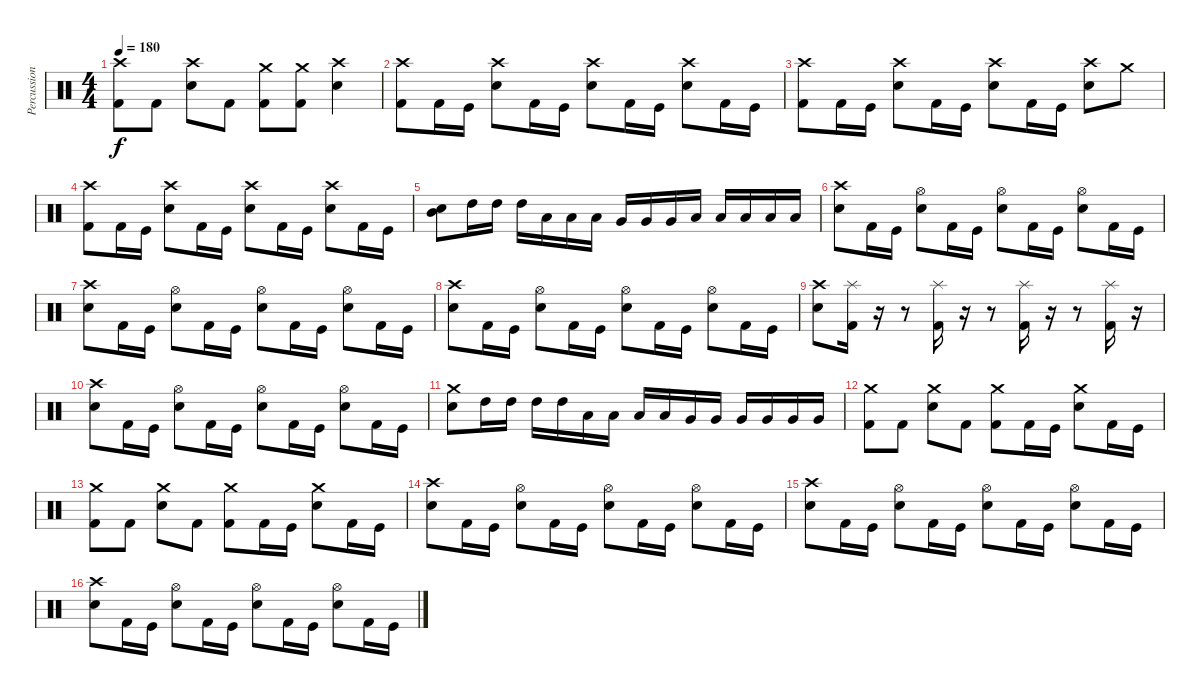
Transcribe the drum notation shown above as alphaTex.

\track ("Percussion" "Percussion") {instrument percussion}
\staff {score}
\articulation defaults
\ts (4 4)
\tempo 180
\clef neutral
\ks c
("Kick (hit) 2" "Crash high (hit)").8{dy f} "Kick (hit) 2".8 ("Snare (hit) 2" "Crash high (hit)").8 "Kick (hit) 2".8 ("Kick (hit) 2" "Crash medium (hit)").8 ("Kick (hit) 2" "Crash medium (hit)").8 ("Snare (hit) 2" "Crash high (hit)").4 |
("Kick (hit) 2" "Crash high (hit)").8 "Kick (hit) 2".16 "Kick (hit)".16 ("Snare (hit) 2" "Crash high (hit)").8 "Kick (hit) 2".16 "Kick (hit)".16 ("Snare (hit) 2" "Crash high (hit)").8 "Kick (hit) 2".16 "Kick (hit)".16 ("Snare (hit) 2" "Crash high (hit)").8 "Kick (hit) 2".16 "Kick (hit)".16 |
("Kick (hit) 2" "Crash high (hit)").8 "Kick (hit) 2".16 "Kick (hit)".16 ("Snare (hit) 2" "Crash high (hit)").8 "Kick (hit) 2".16 "Kick (hit)".16 ("Snare (hit) 2" "Crash high (hit)").8 "Kick (hit) 2".16 "Kick (hit)".16 ("Snare (hit) 2" "Crash high (hit)").8 "Crash medium (hit)".8 |
("Kick (hit) 2" "Crash high (hit)").8 "Kick (hit) 2".16 "Kick (hit)".16 ("Snare (hit) 2" "Crash high (hit)").8 "Kick (hit) 2".16 "Kick (hit)".16 ("Snare (hit) 2" "Crash high (hit)").8 "Kick (hit) 2".16 "Kick (hit)".16 ("Snare (hit) 2" "Crash high (hit)").8 "Kick (hit) 2".16 "Kick (hit)".16 |
("Snare (hit) 2" "Mid Tom (hit)").8 "High Tom (hit)".16 "High Tom (hit)".16 "High Tom (hit)".16 "Low Tom (hit)".16 "Low Tom (hit)".16 "Low Tom (hit)".16 "Very Low Tom (hit)".16 "Very Low Tom (hit)".16 "Very Low Tom (hit)".16 "Low Floor Tom (hit)".16 "Low Floor Tom (hit)".16 "Low Floor Tom (hit)".16 "Low Floor Tom (hit)".16 "Low Floor Tom (hit)".16 |
("Snare (hit) 2" "Crash high (hit)").8 "Kick (hit) 2".16 "Kick (hit)".16 ("Snare (hit) 2" "Hi-Hat (open)").8 "Kick (hit) 2".16 "Kick (hit)".16 ("Snare (hit) 2" "Hi-Hat (open)").8 "Kick (hit) 2".16 "Kick (hit)".16 ("Snare (hit) 2" "Hi-Hat (open)").8 "Kick (hit) 2".16 "Kick (hit)".16 |
("Snare (hit) 2" "Crash high (hit)").8 "Kick (hit) 2".16 "Kick (hit)".16 ("Snare (hit) 2" "Hi-Hat (open)").8 "Kick (hit) 2".16 "Kick (hit)".16 ("Snare (hit) 2" "Hi-Hat (open)").8 "Kick (hit) 2".16 "Kick (hit)".16 ("Snare (hit) 2" "Hi-Hat (open)").8 "Kick (hit) 2".16 "Kick (hit)".16 |
("Snare (hit) 2" "Crash high (hit)").8 "Kick (hit) 2".16 "Kick (hit)".16 ("Snare (hit) 2" "Hi-Hat (open)").8 "Kick (hit) 2".16 "Kick (hit)".16 ("Snare (hit) 2" "Hi-Hat (open)").8 "Kick (hit) 2".16 "Kick (hit)".16 ("Snare (hit) 2" "Hi-Hat (open)").8 "Kick (hit) 2".16 "Kick (hit)".16 |
("Snare (hit) 2" "Crash high (hit)").8 ("Kick (hit) 2" "Splash (hit)").16 r.16 r.8 ("Kick (hit) 2" "Splash (hit)").16 r.16 r.8 ("Kick (hit) 2" "Splash (hit)").16 r.16 r.8 ("Kick (hit) 2" "Splash (hit)").16 r.16 |
("Snare (hit) 2" "Crash high (hit)").8 "Kick (hit) 2".16 "Kick (hit)".16 ("Snare (hit) 2" "Hi-Hat (open)").8 "Kick (hit) 2".16 "Kick (hit)".16 ("Snare (hit) 2" "Hi-Hat (open)").8 "Kick (hit) 2".16 "Kick (hit)".16 ("Snare (hit) 2" "Hi-Hat (open)").8 "Kick (hit) 2".16 "Kick (hit)".16 |
("Snare (hit) 2" "Crash medium (hit)").8 "High Tom (hit)".16 "High Tom (hit)".16 "High Tom (hit)".16 "High Tom (hit)".16 "Low Tom (hit)".16 "Low Tom (hit)".16 "Low Tom (hit)".16 "Low Tom (hit)".16 "Very Low Tom (hit)".16 "Very Low Tom (hit)".16 "Very Low Tom (hit)".16 "Very Low Tom (hit)".16 "Very Low Tom (hit)".16 "Very Low Tom (hit)".16 |
("Kick (hit) 2" "Crash medium (hit)").8 "Kick (hit) 2".8 ("Snare (hit) 2" "Crash medium (hit)").8 "Kick (hit) 2".8 ("Kick (hit) 2" "Crash medium (hit)").8 "Kick (hit) 2".16 "Kick (hit)".16 ("Snare (hit) 2" "Crash medium (hit)").8 "Kick (hit) 2".16 "Kick (hit)".16 |
("Kick (hit) 2" "Crash medium (hit)").8 "Kick (hit) 2".8 ("Snare (hit) 2" "Crash medium (hit)").8 "Kick (hit) 2".8 ("Kick (hit) 2" "Crash medium (hit)").8 "Kick (hit) 2".16 "Kick (hit)".16 ("Snare (hit) 2" "Crash medium (hit)").8 "Kick (hit) 2".16 "Kick (hit)".16 |
("Snare (hit) 2" "Crash high (hit)").8 "Kick (hit) 2".16 "Kick (hit)".16 ("Snare (hit) 2" "Hi-Hat (open)").8 "Kick (hit) 2".16 "Kick (hit)".16 ("Snare (hit) 2" "Hi-Hat (open)").8 "Kick (hit) 2".16 "Kick (hit)".16 ("Snare (hit) 2" "Hi-Hat (open)").8 "Kick (hit) 2".16 "Kick (hit)".16 |
("Snare (hit) 2" "Crash high (hit)").8 "Kick (hit) 2".16 "Kick (hit)".16 ("Snare (hit) 2" "Hi-Hat (open)").8 "Kick (hit) 2".16 "Kick (hit)".16 ("Snare (hit) 2" "Hi-Hat (open)").8 "Kick (hit) 2".16 "Kick (hit)".16 ("Snare (hit) 2" "Hi-Hat (open)").8 "Kick (hit) 2".16 "Kick (hit)".16 |
("Snare (hit) 2" "Crash high (hit)").8 "Kick (hit) 2".16 "Kick (hit)".16 ("Snare (hit) 2" "Hi-Hat (open)").8 "Kick (hit) 2".16 "Kick (hit)".16 ("Snare (hit) 2" "Hi-Hat (open)").8 "Kick (hit) 2".16 "Kick (hit)".16 ("Snare (hit) 2" "Hi-Hat (open)").8 "Kick (hit) 2".16 "Kick (hit)".16
